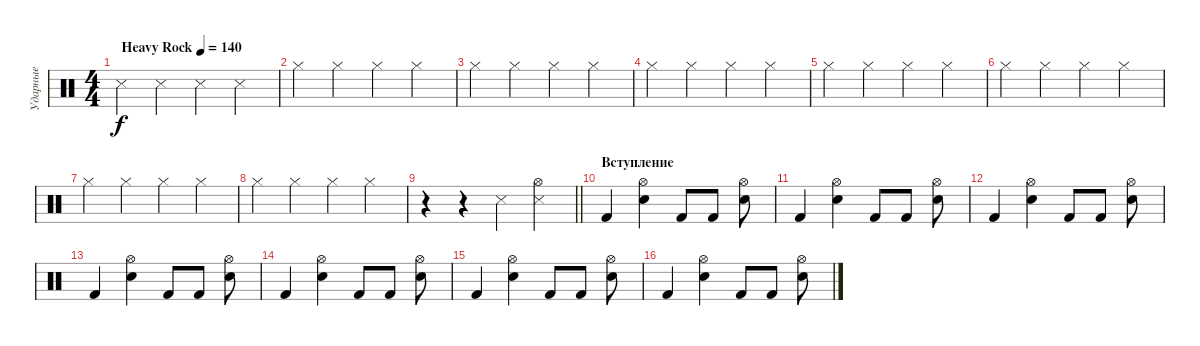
\track ("Ударные" "Ударные") {instrument percussion}
\staff {score}
\articulation defaults
\ts (4 4)
\tempo (140 "Heavy Rock")
\clef neutral
\ks c "Metronome (hit)".4{dy f} "Metronome (hit)".4 "Metronome (hit)".4 "Metronome (hit)".4
|
"Hi-Hat (closed)".4 "Hi-Hat (closed)".4 "Hi-Hat (closed)".4 "Hi-Hat (closed)".4 |
"Hi-Hat (closed)".4 "Hi-Hat (closed)".4 "Hi-Hat (closed)".4 "Hi-Hat (closed)".4 |
"Hi-Hat (closed)".4 "Hi-Hat (closed)".4 "Hi-Hat (closed)".4 "Hi-Hat (closed)".4 |
"Hi-Hat (closed)".4 "Hi-Hat (closed)".4 "Hi-Hat (closed)".4 "Hi-Hat (closed)".4 |
"Hi-Hat (closed)".4 "Hi-Hat (closed)".4 "Hi-Hat (closed)".4 "Hi-Hat (closed)".4 |
"Hi-Hat (closed)".4 "Hi-Hat (closed)".4 "Hi-Hat (closed)".4 "Hi-Hat (closed)".4 |
"Hi-Hat (closed)".4 "Hi-Hat (closed)".4 "Hi-Hat (closed)".4 "Hi-Hat (closed)".4 |
\barLineRight lightlight
r.4 r.4 "Metronome (hit)".4 ("Metronome (hit)" "Hi-Hat (open)").4 |
\section ("" "Вступление")
"Kick (hit) 2".4 ("Electric Snare (hit)" "Hi-Hat (open)").4 "Kick (hit) 2".8 "Kick (hit) 2".8 ("Electric Snare (hit)" "Hi-Hat (open)").8 |
"Kick (hit) 2".4 ("Electric Snare (hit)" "Hi-Hat (open)").4 "Kick (hit) 2".8 "Kick (hit) 2".8 ("Electric Snare (hit)" "Hi-Hat (open)").8 |
"Kick (hit) 2".4 ("Electric Snare (hit)" "Hi-Hat (open)").4 "Kick (hit) 2".8 "Kick (hit) 2".8 ("Electric Snare (hit)" "Hi-Hat (open)").8 |
"Kick (hit) 2".4 ("Electric Snare (hit)" "Hi-Hat (open)").4 "Kick (hit) 2".8 "Kick (hit) 2".8 ("Electric Snare (hit)" "Hi-Hat (open)").8 |
"Kick (hit) 2".4 ("Electric Snare (hit)" "Hi-Hat (open)").4 "Kick (hit) 2".8 "Kick (hit) 2".8 ("Electric Snare (hit)" "Hi-Hat (open)").8 |
"Kick (hit) 2".4 ("Electric Snare (hit)" "Hi-Hat (open)").4 "Kick (hit) 2".8 "Kick (hit) 2".8 ("Electric Snare (hit)" "Hi-Hat (open)").8 |
"Kick (hit) 2".4 ("Electric Snare (hit)" "Hi-Hat (open)").4 "Kick (hit) 2".8 "Kick (hit) 2".8 ("Electric Snare (hit)" "Hi-Hat (open)").8
